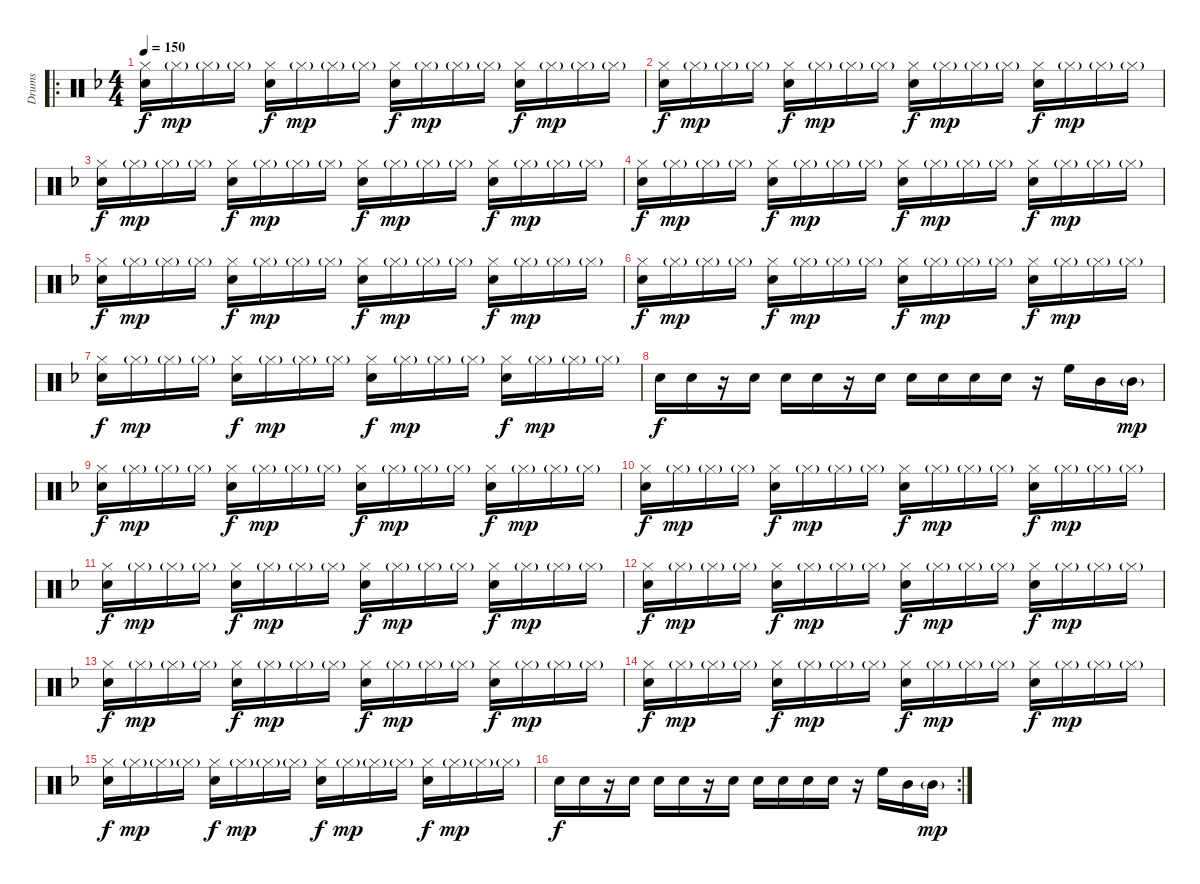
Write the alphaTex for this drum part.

\track ("Drums" "Drums") {instrument percussion}
\staff {score}
\articulation defaults
\ro
\ts (4 4)
\tempo 150
\clef neutral
\ks dminor
("Hi-Hat (closed)" "Snare (hit) 2").16{dy f} "Hi-Hat (closed)"{g}.16{dy mp} "Hi-Hat (closed)"{g}.16 "Hi-Hat (closed)"{g}.16 ("Hi-Hat (closed)" "Snare (hit) 2").16{dy f} "Hi-Hat (closed)"{g}.16{dy mp} "Hi-Hat (closed)"{g}.16 "Hi-Hat (closed)"{g}.16 ("Hi-Hat (closed)" "Snare (hit) 2").16{dy f} "Hi-Hat (closed)"{g}.16{dy mp} "Hi-Hat (closed)"{g}.16 "Hi-Hat (closed)"{g}.16 ("Hi-Hat (closed)" "Snare (hit) 2").16{dy f} "Hi-Hat (closed)"{g}.16{dy mp} "Hi-Hat (closed)"{g}.16 "Hi-Hat (closed)"{g}.16 |
("Hi-Hat (closed)" "Snare (hit) 2").16{dy f} "Hi-Hat (closed)"{g}.16{dy mp} "Hi-Hat (closed)"{g}.16 "Hi-Hat (closed)"{g}.16 ("Hi-Hat (closed)" "Snare (hit) 2").16{dy f} "Hi-Hat (closed)"{g}.16{dy mp} "Hi-Hat (closed)"{g}.16 "Hi-Hat (closed)"{g}.16 ("Hi-Hat (closed)" "Snare (hit) 2").16{dy f} "Hi-Hat (closed)"{g}.16{dy mp} "Hi-Hat (closed)"{g}.16 "Hi-Hat (closed)"{g}.16 ("Hi-Hat (closed)" "Snare (hit) 2").16{dy f} "Hi-Hat (closed)"{g}.16{dy mp} "Hi-Hat (closed)"{g}.16 "Hi-Hat (closed)"{g}.16 |
("Hi-Hat (closed)" "Snare (hit) 2").16{dy f} "Hi-Hat (closed)"{g}.16{dy mp} "Hi-Hat (closed)"{g}.16 "Hi-Hat (closed)"{g}.16 ("Hi-Hat (closed)" "Snare (hit) 2").16{dy f} "Hi-Hat (closed)"{g}.16{dy mp} "Hi-Hat (closed)"{g}.16 "Hi-Hat (closed)"{g}.16 ("Hi-Hat (closed)" "Snare (hit) 2").16{dy f} "Hi-Hat (closed)"{g}.16{dy mp} "Hi-Hat (closed)"{g}.16 "Hi-Hat (closed)"{g}.16 ("Hi-Hat (closed)" "Snare (hit) 2").16{dy f} "Hi-Hat (closed)"{g}.16{dy mp} "Hi-Hat (closed)"{g}.16 "Hi-Hat (closed)"{g}.16 |
("Hi-Hat (closed)" "Snare (hit) 2").16{dy f} "Hi-Hat (closed)"{g}.16{dy mp} "Hi-Hat (closed)"{g}.16 "Hi-Hat (closed)"{g}.16 ("Hi-Hat (closed)" "Snare (hit) 2").16{dy f} "Hi-Hat (closed)"{g}.16{dy mp} "Hi-Hat (closed)"{g}.16 "Hi-Hat (closed)"{g}.16 ("Hi-Hat (closed)" "Snare (hit) 2").16{dy f} "Hi-Hat (closed)"{g}.16{dy mp} "Hi-Hat (closed)"{g}.16 "Hi-Hat (closed)"{g}.16 ("Hi-Hat (closed)" "Snare (hit) 2").16{dy f} "Hi-Hat (closed)"{g}.16{dy mp} "Hi-Hat (closed)"{g}.16 "Hi-Hat (closed)"{g}.16 |
("Hi-Hat (closed)" "Snare (hit) 2").16{dy f} "Hi-Hat (closed)"{g}.16{dy mp} "Hi-Hat (closed)"{g}.16 "Hi-Hat (closed)"{g}.16 ("Hi-Hat (closed)" "Snare (hit) 2").16{dy f} "Hi-Hat (closed)"{g}.16{dy mp} "Hi-Hat (closed)"{g}.16 "Hi-Hat (closed)"{g}.16 ("Hi-Hat (closed)" "Snare (hit) 2").16{dy f} "Hi-Hat (closed)"{g}.16{dy mp} "Hi-Hat (closed)"{g}.16 "Hi-Hat (closed)"{g}.16 ("Hi-Hat (closed)" "Snare (hit) 2").16{dy f} "Hi-Hat (closed)"{g}.16{dy mp} "Hi-Hat (closed)"{g}.16 "Hi-Hat (closed)"{g}.16 |
("Hi-Hat (closed)" "Snare (hit) 2").16{dy f} "Hi-Hat (closed)"{g}.16{dy mp} "Hi-Hat (closed)"{g}.16 "Hi-Hat (closed)"{g}.16 ("Hi-Hat (closed)" "Snare (hit) 2").16{dy f} "Hi-Hat (closed)"{g}.16{dy mp} "Hi-Hat (closed)"{g}.16 "Hi-Hat (closed)"{g}.16 ("Hi-Hat (closed)" "Snare (hit) 2").16{dy f} "Hi-Hat (closed)"{g}.16{dy mp} "Hi-Hat (closed)"{g}.16 "Hi-Hat (closed)"{g}.16 ("Hi-Hat (closed)" "Snare (hit) 2").16{dy f} "Hi-Hat (closed)"{g}.16{dy mp} "Hi-Hat (closed)"{g}.16 "Hi-Hat (closed)"{g}.16 |
("Hi-Hat (closed)" "Snare (hit) 2").16{dy f} "Hi-Hat (closed)"{g}.16{dy mp} "Hi-Hat (closed)"{g}.16 "Hi-Hat (closed)"{g}.16 ("Hi-Hat (closed)" "Snare (hit) 2").16{dy f} "Hi-Hat (closed)"{g}.16{dy mp} "Hi-Hat (closed)"{g}.16 "Hi-Hat (closed)"{g}.16 ("Hi-Hat (closed)" "Snare (hit) 2").16{dy f} "Hi-Hat (closed)"{g}.16{dy mp} "Hi-Hat (closed)"{g}.16 "Hi-Hat (closed)"{g}.16 ("Hi-Hat (closed)" "Snare (hit) 2").16{dy f} "Hi-Hat (closed)"{g}.16{dy mp} "Hi-Hat (closed)"{g}.16 "Hi-Hat (closed)"{g}.16 |
"Snare (hit) 2".16{dy f} "Snare (hit) 2".16 r.16 "Snare (hit) 2".16 "Snare (hit) 2".16 "Snare (hit) 2".16 r.16 "Snare (hit) 2".16 "Snare (hit) 2".16 "Snare (hit) 2".16 "Snare (hit) 2".16 "Snare (hit) 2".16 r.16 "High Floor Tom (hit)".16 "Mid Tom (hit)".16 "Mid Tom (hit)"{g}.16{dy mp} |
("Hi-Hat (closed)" "Snare (hit) 2").16{dy f} "Hi-Hat (closed)"{g}.16{dy mp} "Hi-Hat (closed)"{g}.16 "Hi-Hat (closed)"{g}.16 ("Hi-Hat (closed)" "Snare (hit) 2").16{dy f} "Hi-Hat (closed)"{g}.16{dy mp} "Hi-Hat (closed)"{g}.16 "Hi-Hat (closed)"{g}.16 ("Hi-Hat (closed)" "Snare (hit) 2").16{dy f} "Hi-Hat (closed)"{g}.16{dy mp} "Hi-Hat (closed)"{g}.16 "Hi-Hat (closed)"{g}.16 ("Hi-Hat (closed)" "Snare (hit) 2").16{dy f} "Hi-Hat (closed)"{g}.16{dy mp} "Hi-Hat (closed)"{g}.16 "Hi-Hat (closed)"{g}.16 |
("Hi-Hat (closed)" "Snare (hit) 2").16{dy f} "Hi-Hat (closed)"{g}.16{dy mp} "Hi-Hat (closed)"{g}.16 "Hi-Hat (closed)"{g}.16 ("Hi-Hat (closed)" "Snare (hit) 2").16{dy f} "Hi-Hat (closed)"{g}.16{dy mp} "Hi-Hat (closed)"{g}.16 "Hi-Hat (closed)"{g}.16 ("Hi-Hat (closed)" "Snare (hit) 2").16{dy f} "Hi-Hat (closed)"{g}.16{dy mp} "Hi-Hat (closed)"{g}.16 "Hi-Hat (closed)"{g}.16 ("Hi-Hat (closed)" "Snare (hit) 2").16{dy f} "Hi-Hat (closed)"{g}.16{dy mp} "Hi-Hat (closed)"{g}.16 "Hi-Hat (closed)"{g}.16 |
("Hi-Hat (closed)" "Snare (hit) 2").16{dy f} "Hi-Hat (closed)"{g}.16{dy mp} "Hi-Hat (closed)"{g}.16 "Hi-Hat (closed)"{g}.16 ("Hi-Hat (closed)" "Snare (hit) 2").16{dy f} "Hi-Hat (closed)"{g}.16{dy mp} "Hi-Hat (closed)"{g}.16 "Hi-Hat (closed)"{g}.16 ("Hi-Hat (closed)" "Snare (hit) 2").16{dy f} "Hi-Hat (closed)"{g}.16{dy mp} "Hi-Hat (closed)"{g}.16 "Hi-Hat (closed)"{g}.16 ("Hi-Hat (closed)" "Snare (hit) 2").16{dy f} "Hi-Hat (closed)"{g}.16{dy mp} "Hi-Hat (closed)"{g}.16 "Hi-Hat (closed)"{g}.16 |
("Hi-Hat (closed)" "Snare (hit) 2").16{dy f} "Hi-Hat (closed)"{g}.16{dy mp} "Hi-Hat (closed)"{g}.16 "Hi-Hat (closed)"{g}.16 ("Hi-Hat (closed)" "Snare (hit) 2").16{dy f} "Hi-Hat (closed)"{g}.16{dy mp} "Hi-Hat (closed)"{g}.16 "Hi-Hat (closed)"{g}.16 ("Hi-Hat (closed)" "Snare (hit) 2").16{dy f} "Hi-Hat (closed)"{g}.16{dy mp} "Hi-Hat (closed)"{g}.16 "Hi-Hat (closed)"{g}.16 ("Hi-Hat (closed)" "Snare (hit) 2").16{dy f} "Hi-Hat (closed)"{g}.16{dy mp} "Hi-Hat (closed)"{g}.16 "Hi-Hat (closed)"{g}.16 |
("Hi-Hat (closed)" "Snare (hit) 2").16{dy f} "Hi-Hat (closed)"{g}.16{dy mp} "Hi-Hat (closed)"{g}.16 "Hi-Hat (closed)"{g}.16 ("Hi-Hat (closed)" "Snare (hit) 2").16{dy f} "Hi-Hat (closed)"{g}.16{dy mp} "Hi-Hat (closed)"{g}.16 "Hi-Hat (closed)"{g}.16 ("Hi-Hat (closed)" "Snare (hit) 2").16{dy f} "Hi-Hat (closed)"{g}.16{dy mp} "Hi-Hat (closed)"{g}.16 "Hi-Hat (closed)"{g}.16 ("Hi-Hat (closed)" "Snare (hit) 2").16{dy f} "Hi-Hat (closed)"{g}.16{dy mp} "Hi-Hat (closed)"{g}.16 "Hi-Hat (closed)"{g}.16 |
("Hi-Hat (closed)" "Snare (hit) 2").16{dy f} "Hi-Hat (closed)"{g}.16{dy mp} "Hi-Hat (closed)"{g}.16 "Hi-Hat (closed)"{g}.16 ("Hi-Hat (closed)" "Snare (hit) 2").16{dy f} "Hi-Hat (closed)"{g}.16{dy mp} "Hi-Hat (closed)"{g}.16 "Hi-Hat (closed)"{g}.16 ("Hi-Hat (closed)" "Snare (hit) 2").16{dy f} "Hi-Hat (closed)"{g}.16{dy mp} "Hi-Hat (closed)"{g}.16 "Hi-Hat (closed)"{g}.16 ("Hi-Hat (closed)" "Snare (hit) 2").16{dy f} "Hi-Hat (closed)"{g}.16{dy mp} "Hi-Hat (closed)"{g}.16 "Hi-Hat (closed)"{g}.16 |
("Hi-Hat (closed)" "Snare (hit) 2").16{dy f} "Hi-Hat (closed)"{g}.16{dy mp} "Hi-Hat (closed)"{g}.16 "Hi-Hat (closed)"{g}.16 ("Hi-Hat (closed)" "Snare (hit) 2").16{dy f} "Hi-Hat (closed)"{g}.16{dy mp} "Hi-Hat (closed)"{g}.16 "Hi-Hat (closed)"{g}.16 ("Hi-Hat (closed)" "Snare (hit) 2").16{dy f} "Hi-Hat (closed)"{g}.16{dy mp} "Hi-Hat (closed)"{g}.16 "Hi-Hat (closed)"{g}.16 ("Hi-Hat (closed)" "Snare (hit) 2").16{dy f} "Hi-Hat (closed)"{g}.16{dy mp} "Hi-Hat (closed)"{g}.16 "Hi-Hat (closed)"{g}.16 |
\rc 2 "Snare (hit) 2".16{dy f} "Snare (hit) 2".16
r.16 "Snare (hit) 2".16 "Snare (hit) 2".16 "Snare (hit) 2".16 r.16 "Snare (hit) 2".16 "Snare (hit) 2".16 "Snare (hit) 2".16 "Snare (hit) 2".16 "Snare (hit) 2".16 r.16 "High Floor Tom (hit)".16 "Mid Tom (hit)".16 "Mid Tom (hit)"{g}.16{dy mp}
